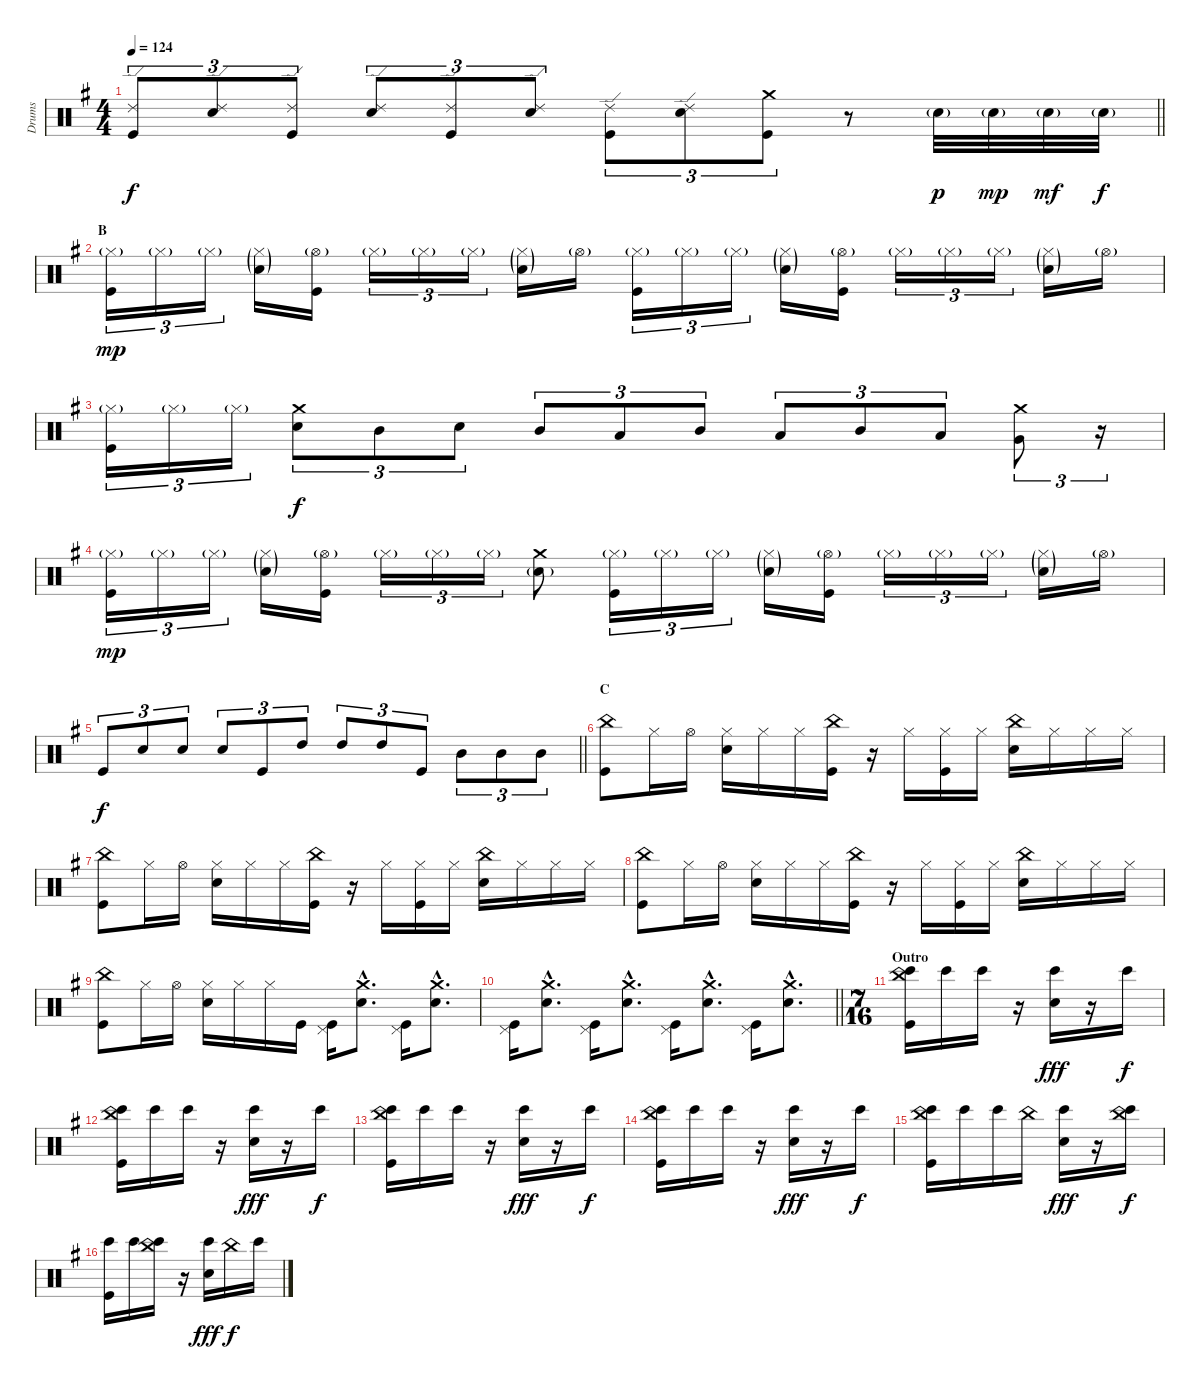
\track ("Drums" "Drums") {instrument percussion}
\staff {score}
\articulation defaults
\ts (4 4)
\tempo 124
\clef neutral
\barLineRight lightlight
\ks eminor
("Ride (edge) 2" "Kick (hit)").8{tu (3 2) dy f} ("Ride (edge) 2" "Electric Snare (hit)").8{tu (3 2)} ("Ride (edge) 2" "Kick (hit)").8{tu (3 2)} ("Ride (edge) 2" "Electric Snare (hit)").8{tu (3 2)} ("Ride (edge) 2" "Kick (hit)").8{tu (3 2)} ("Ride (edge) 2" "Electric Snare (hit)").8{tu (3 2)} ("Ride (edge) 2" "Kick (hit)").8{tu (3 2)} ("Ride (edge) 2" "Electric Snare (hit)").8{tu (3 2)} ("Crash medium (hit)" "Kick (hit)").8{tu (3 2)} r.8 "Electric Snare (hit)"{g}.32{dy p} "Electric Snare (hit)"{g}.32{dy mp} "Electric Snare (hit)"{g}.32{dy mf} "Electric Snare (hit)"{g}.32{dy f} |
\section ("" "B")
("Hi-Hat (closed)"{g} "Kick (hit)").16{tu (3 2) dy mp} "Hi-Hat (closed)"{g}.16{tu (3 2)} "Hi-Hat (closed)"{g}.16{tu (3 2)} ("Hi-Hat (closed)"{g} "Electric Snare (hit)"{g}).16 ("Hi-Hat (open)"{g} "Kick (hit)").16 "Hi-Hat (closed)"{g}.16{tu (3 2)} "Hi-Hat (closed)"{g}.16{tu (3 2)} "Hi-Hat (closed)"{g}.16{tu (3 2)} ("Hi-Hat (closed)"{g} "Electric Snare (hit)"{g}).16 "Hi-Hat (open)"{g}.16 ("Hi-Hat (closed)"{g} "Kick (hit)").16{tu (3 2)} "Hi-Hat (closed)"{g}.16{tu (3 2)} "Hi-Hat (closed)"{g}.16{tu (3 2)} ("Hi-Hat (closed)"{g} "Electric Snare (hit)"{g}).16 ("Hi-Hat (open)"{g} "Kick (hit)").16 "Hi-Hat (closed)"{g}.16{tu (3 2)} "Hi-Hat (closed)"{g}.16{tu (3 2)} "Hi-Hat (closed)"{g}.16{tu (3 2)} ("Hi-Hat (closed)"{g} "Electric Snare (hit)"{g}).16 "Hi-Hat (open)"{g}.16 |
("Hi-Hat (closed)"{g} "Kick (hit)").16{tu (3 2)} "Hi-Hat (closed)"{g}.16{tu (3 2)} "Hi-Hat (closed)"{g}.16{tu (3 2)} ("Crash medium (hit)" "Electric Snare (hit)").8{tu (3 2) dy f} "Mid Tom (hit)".8{tu (3 2)} "Electric Snare (hit)".8{tu (3 2)} "Mid Tom (hit)".8{tu (3 2)} "Low Tom (hit)".8{tu (3 2)} "Mid Tom (hit)".8{tu (3 2)} "Low Tom (hit)".8{tu (3 2)} "Mid Tom (hit)".8{tu (3 2)} "Low Tom (hit)".8{tu (3 2)} ("Crash medium (hit)" "Very Low Tom (hit)").8{tu (3 2)} r.16{tu (3 2)} |
("Hi-Hat (closed)"{g} "Kick (hit)").16{tu (3 2) dy mp} "Hi-Hat (closed)"{g}.16{tu (3 2)} "Hi-Hat (closed)"{g}.16{tu (3 2)} ("Hi-Hat (closed)"{g} "Electric Snare (hit)"{g}).16 ("Hi-Hat (open)"{g} "Kick (hit)").16 "Hi-Hat (closed)"{g}.16{tu (3 2)} "Hi-Hat (closed)"{g}.16{tu (3 2)} "Hi-Hat (closed)"{g}.16{tu (3 2)} ("Crash medium (hit)" "Electric Snare (hit)"{g}).8 ("Hi-Hat (closed)"{g} "Kick (hit)").16{tu (3 2)} "Hi-Hat (closed)"{g}.16{tu (3 2)} "Hi-Hat (closed)"{g}.16{tu (3 2)} ("Hi-Hat (closed)"{g} "Electric Snare (hit)"{g}).16 ("Hi-Hat (open)"{g} "Kick (hit)").16 "Hi-Hat (closed)"{g}.16{tu (3 2)} "Hi-Hat (closed)"{g}.16{tu (3 2)} "Hi-Hat (closed)"{g}.16{tu (3 2)} ("Hi-Hat (closed)"{g} "Electric Snare (hit)"{g}).16 "Hi-Hat (open)"{g}.16 |
\barLineRight lightlight "Kick (hit)".8{tu (3 2) dy f} "Electric Snare (hit)".8{tu (3 2)} "Electric Snare (hit)".8{tu (3 2)} "Electric Snare (hit)".8{tu (3 2)} "Kick (hit)".8{tu (3 2)} "High Tom (hit)".8{tu (3 2)} "High Tom (hit)".8{tu (3 2)} "High Tom (hit)".8{tu (3 2)} "Kick (hit)".8{tu (3 2)} "Mid Tom (hit)".8{tu (3 2)} "Mid Tom (hit)".8{tu (3 2)} "Mid Tom (hit)".8{tu (3 2)}
|
\section ("" "C")
("China (hit)" "Kick (hit)").8 "Hi-Hat (closed)".16 "Hi-Hat (open)".16 ("Hi-Hat (closed)" "Electric Snare (hit)").16 "Hi-Hat (closed)".16 "Hi-Hat (closed)".16 ("China (hit)" "Kick (hit)").16 r.16 "Hi-Hat (closed)".16 ("Hi-Hat (closed)" "Kick (hit)").16 "Hi-Hat (closed)".16 ("China (hit)" "Electric Snare (hit)").16 "Hi-Hat (closed)".16 "Hi-Hat (closed)".16 "Hi-Hat (closed)".16 |
("China (hit)" "Kick (hit)").8 "Hi-Hat (closed)".16 "Hi-Hat (open)".16 ("Hi-Hat (closed)" "Electric Snare (hit)").16 "Hi-Hat (closed)".16 "Hi-Hat (closed)".16 ("China (hit)" "Kick (hit)").16 r.16 "Hi-Hat (closed)".16 ("Hi-Hat (closed)" "Kick (hit)").16 "Hi-Hat (closed)".16 ("China (hit)" "Electric Snare (hit)").16 "Hi-Hat (closed)".16 "Hi-Hat (closed)".16 "Hi-Hat (closed)".16 |
("China (hit)" "Kick (hit)").8 "Hi-Hat (closed)".16 "Hi-Hat (open)".16 ("Hi-Hat (closed)" "Electric Snare (hit)").16 "Hi-Hat (closed)".16 "Hi-Hat (closed)".16 ("China (hit)" "Kick (hit)").16 r.16 "Hi-Hat (closed)".16 ("Hi-Hat (closed)" "Kick (hit)").16 "Hi-Hat (closed)".16 ("China (hit)" "Electric Snare (hit)").16 "Hi-Hat (closed)".16 "Hi-Hat (closed)".16 "Hi-Hat (closed)".16 |
("China (hit)" "Kick (hit)").8 "Hi-Hat (closed)".16 "Hi-Hat (open)".16 ("Hi-Hat (closed)" "Electric Snare (hit)").16 "Hi-Hat (closed)".16 "Hi-Hat (closed)".16 "Kick (hit)".16 ("Pedal Hi-Hat (hit)" "Kick (hit)").16 ("Crash medium (hit)"{hac} "Electric Snare (hit)"{hac}).8{d} ("Pedal Hi-Hat (hit)" "Kick (hit)").16 ("Crash medium (hit)"{hac} "Electric Snare (hit)"{hac}).8{d} |
\barLineRight lightlight
("Pedal Hi-Hat (hit)" "Kick (hit)").16 ("Crash medium (hit)"{hac} "Electric Snare (hit)"{hac}).8{d} ("Pedal Hi-Hat (hit)" "Kick (hit)").16 ("Crash medium (hit)"{hac} "Electric Snare (hit)"{hac}).8{d} ("Pedal Hi-Hat (hit)" "Kick (hit)").16 ("Crash medium (hit)"{hac} "Electric Snare (hit)"{hac}).8{d} ("Pedal Hi-Hat (hit)" "Kick (hit)").16 ("Crash medium (hit)"{hac} "Electric Snare (hit)"{hac}).8{d} |
\ts (7 16)
\section ("" "Outro")
("China (hit)" "Bongo High (hit)" "Kick (hit)").16 "Bongo High (hit)".16 "Bongo High (hit)".16 r.16 ("Electric Snare (hit)" "Bongo High (hit)").16{dy fff} r.16 "Bongo High (hit)".16{dy f} |
("China (hit)" "Bongo High (hit)" "Kick (hit)").16 "Bongo High (hit)".16 "Bongo High (hit)".16 r.16 ("Electric Snare (hit)" "Bongo High (hit)").16{dy fff} r.16 "Bongo High (hit)".16{dy f} |
("China (hit)" "Bongo High (hit)" "Kick (hit)").16 "Bongo High (hit)".16 "Bongo High (hit)".16 r.16 ("Electric Snare (hit)" "Bongo High (hit)").16{dy fff} r.16 "Bongo High (hit)".16{dy f} |
("China (hit)" "Bongo High (hit)" "Kick (hit)").16 "Bongo High (hit)".16 "Bongo High (hit)".16 r.16 ("Electric Snare (hit)" "Bongo High (hit)").16{dy fff} r.16 "Bongo High (hit)".16{dy f} |
("China (hit)" "Bongo High (hit)" "Kick (hit)").16 "Bongo High (hit)".16 "Bongo High (hit)".16 "China (hit)".16 ("Electric Snare (hit)" "Bongo High (hit)").16{dy fff} r.16 ("China (hit)" "Bongo High (hit)").16{dy f} |
("Bongo High (hit)" "Kick (hit)").16 "Bongo High (hit)".16 ("China (hit)" "Bongo High (hit)").16 r.16 ("Electric Snare (hit)" "Bongo High (hit)").16{dy fff} "China (hit)".16{dy f} "Bongo High (hit)".16
